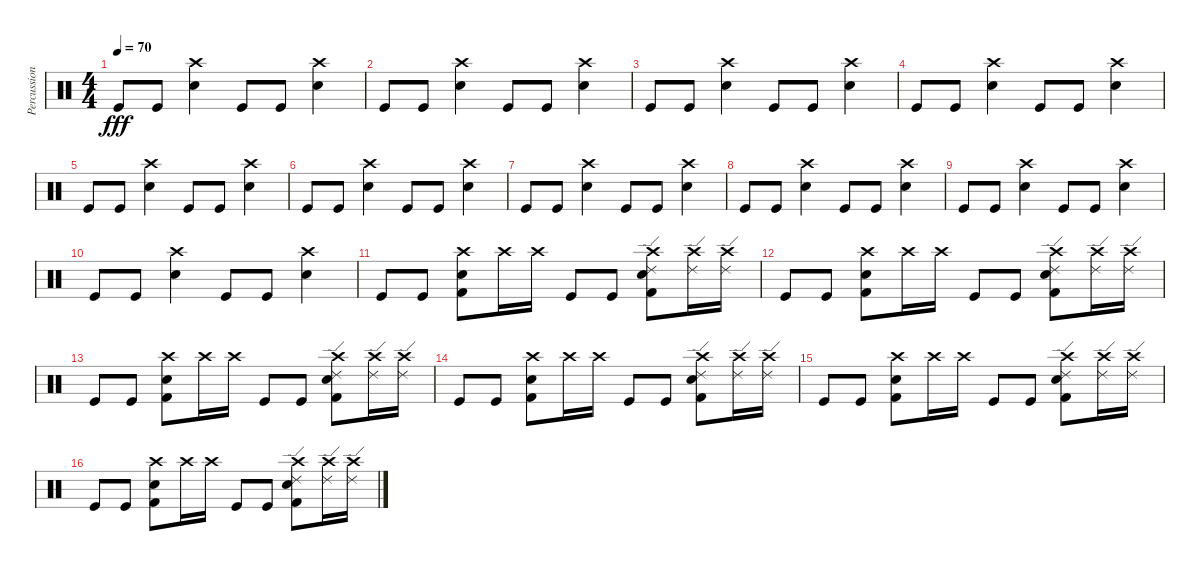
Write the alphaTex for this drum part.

\track ("Percussion" "Percussion") {instrument percussion}
\staff {score}
\articulation defaults
\ts (4 4)
\tempo 70
\clef neutral
\ks c "Kick (hit)".8{dy fff} "Kick (hit)".8
("Metronome (bell)" "Crash high (hit)").4 "Kick (hit)".8 "Kick (hit)".8 ("Metronome (bell)" "Crash high (hit)").4 |
"Kick (hit)".8 "Kick (hit)".8 ("Metronome (bell)" "Crash high (hit)").4 "Kick (hit)".8 "Kick (hit)".8 ("Metronome (bell)" "Crash high (hit)").4 |
"Kick (hit)".8 "Kick (hit)".8 ("Metronome (bell)" "Crash high (hit)").4 "Kick (hit)".8 "Kick (hit)".8 ("Metronome (bell)" "Crash high (hit)").4 |
"Kick (hit)".8 "Kick (hit)".8 ("Metronome (bell)" "Crash high (hit)").4 "Kick (hit)".8 "Kick (hit)".8 ("Metronome (bell)" "Crash high (hit)").4 |
"Kick (hit)".8 "Kick (hit)".8 ("Metronome (bell)" "Crash high (hit)").4 "Kick (hit)".8 "Kick (hit)".8 ("Metronome (bell)" "Crash high (hit)").4 |
"Kick (hit)".8 "Kick (hit)".8 ("Metronome (bell)" "Crash high (hit)").4 "Kick (hit)".8 "Kick (hit)".8 ("Metronome (bell)" "Crash high (hit)").4 |
"Kick (hit)".8 "Kick (hit)".8 ("Metronome (bell)" "Crash high (hit)").4 "Kick (hit)".8 "Kick (hit)".8 ("Metronome (bell)" "Crash high (hit)").4 |
"Kick (hit)".8 "Kick (hit)".8 ("Metronome (bell)" "Crash high (hit)").4 "Kick (hit)".8 "Kick (hit)".8 ("Metronome (bell)" "Crash high (hit)").4 |
"Kick (hit)".8 "Kick (hit)".8 ("Metronome (bell)" "Crash high (hit)").4 "Kick (hit)".8 "Kick (hit)".8 ("Metronome (bell)" "Crash high (hit)").4 |
"Kick (hit)".8 "Kick (hit)".8 ("Metronome (bell)" "Crash high (hit)").4 "Kick (hit)".8 "Kick (hit)".8 ("Metronome (bell)" "Crash high (hit)").4 |
"Kick (hit)".8 "Kick (hit)".8 ("Metronome (bell)" "Crash high (hit)" "Kick (hit) 2").8 "Crash high (hit)".16 "Crash high (hit)".16 "Kick (hit)".8 "Kick (hit)".8 ("Metronome (bell)" "Ride (edge) 2" "Kick (hit) 2" "Crash high (hit)").8 ("Ride (edge) 2" "Crash high (hit)").16 ("Ride (edge) 2" "Crash high (hit)").16 |
"Kick (hit)".8 "Kick (hit)".8 ("Metronome (bell)" "Crash high (hit)" "Kick (hit) 2").8 "Crash high (hit)".16 "Crash high (hit)".16 "Kick (hit)".8 "Kick (hit)".8 ("Metronome (bell)" "Ride (edge) 2" "Kick (hit) 2" "Crash high (hit)").8 ("Ride (edge) 2" "Crash high (hit)").16 ("Ride (edge) 2" "Crash high (hit)").16 |
"Kick (hit)".8 "Kick (hit)".8 ("Metronome (bell)" "Crash high (hit)" "Kick (hit) 2").8 "Crash high (hit)".16 "Crash high (hit)".16 "Kick (hit)".8 "Kick (hit)".8 ("Metronome (bell)" "Ride (edge) 2" "Kick (hit) 2" "Crash high (hit)").8 ("Ride (edge) 2" "Crash high (hit)").16 ("Ride (edge) 2" "Crash high (hit)").16 |
"Kick (hit)".8 "Kick (hit)".8 ("Metronome (bell)" "Crash high (hit)" "Kick (hit) 2").8 "Crash high (hit)".16 "Crash high (hit)".16 "Kick (hit)".8 "Kick (hit)".8 ("Metronome (bell)" "Ride (edge) 2" "Kick (hit) 2" "Crash high (hit)").8 ("Ride (edge) 2" "Crash high (hit)").16 ("Ride (edge) 2" "Crash high (hit)").16 |
"Kick (hit)".8 "Kick (hit)".8 ("Metronome (bell)" "Crash high (hit)" "Kick (hit) 2").8 "Crash high (hit)".16 "Crash high (hit)".16 "Kick (hit)".8 "Kick (hit)".8 ("Metronome (bell)" "Ride (edge) 2" "Kick (hit) 2" "Crash high (hit)").8 ("Ride (edge) 2" "Crash high (hit)").16 ("Ride (edge) 2" "Crash high (hit)").16 |
"Kick (hit)".8 "Kick (hit)".8 ("Metronome (bell)" "Crash high (hit)" "Kick (hit) 2").8 "Crash high (hit)".16 "Crash high (hit)".16 "Kick (hit)".8 "Kick (hit)".8 ("Metronome (bell)" "Ride (edge) 2" "Kick (hit) 2" "Crash high (hit)").8 ("Ride (edge) 2" "Crash high (hit)").16 ("Ride (edge) 2" "Crash high (hit)").16
